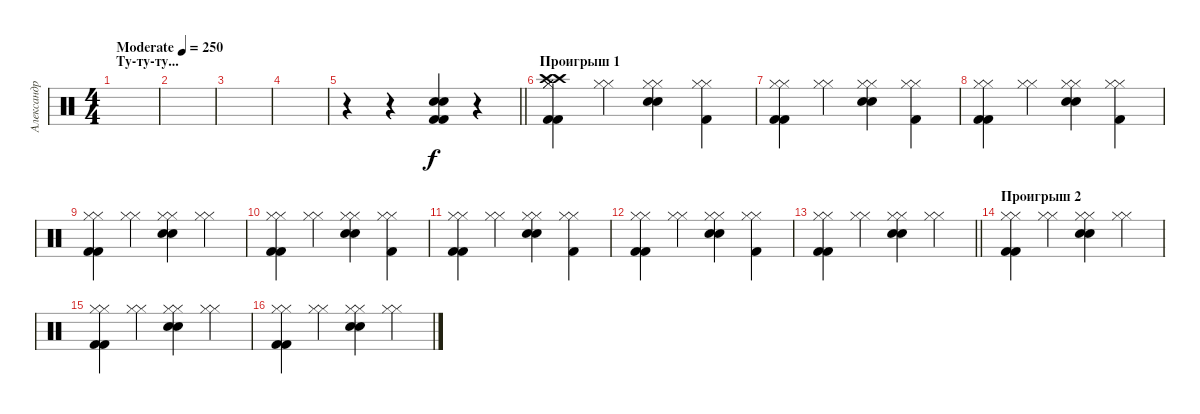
\track ("Александр Андрюшкин" "Александр ") {instrument percussion}
\staff {score}
\articulation defaults
\ts (4 4)
\section ("" "Ту-ту-ту...")
\tempo (250 "Moderate")
\clef neutral
\ks c
|
|
|
|
\barLineRight lightlight
r.4 r.4 ("Snare (hit) 2" "Snare (hit) 2" "Kick (hit) 2" "Kick (hit) 2").4 r.4 |
\section ("" "Проигрыш 1")
("Hi-Hat (closed)" "Hi-Hat (closed)" "Crash high (hit)" "Crash high (hit)" "Kick (hit) 2" "Kick (hit) 2").4 ("Hi-Hat (closed)" "Hi-Hat (closed)").4 ("Hi-Hat (closed)" "Hi-Hat (closed)" "Snare (hit) 2" "Snare (hit) 2").4 ("Hi-Hat (closed)" "Hi-Hat (closed)" "Kick (hit) 2").4 |
("Hi-Hat (closed)" "Hi-Hat (closed)" "Kick (hit) 2" "Kick (hit) 2").4 ("Hi-Hat (closed)" "Hi-Hat (closed)").4 ("Hi-Hat (closed)" "Hi-Hat (closed)" "Snare (hit) 2" "Snare (hit) 2").4 ("Hi-Hat (closed)" "Hi-Hat (closed)" "Kick (hit) 2").4 |
("Hi-Hat (closed)" "Hi-Hat (closed)" "Kick (hit) 2" "Kick (hit) 2").4 ("Hi-Hat (closed)" "Hi-Hat (closed)").4 ("Hi-Hat (closed)" "Hi-Hat (closed)" "Snare (hit) 2" "Snare (hit) 2").4 ("Hi-Hat (closed)" "Hi-Hat (closed)" "Kick (hit) 2").4 |
("Hi-Hat (closed)" "Hi-Hat (closed)" "Kick (hit) 2" "Kick (hit) 2").4 ("Hi-Hat (closed)" "Hi-Hat (closed)").4 ("Hi-Hat (closed)" "Hi-Hat (closed)" "Snare (hit) 2" "Snare (hit) 2").4 ("Hi-Hat (closed)" "Hi-Hat (closed)").4 |
("Hi-Hat (closed)" "Hi-Hat (closed)" "Kick (hit) 2" "Kick (hit) 2").4 ("Hi-Hat (closed)" "Hi-Hat (closed)").4 ("Hi-Hat (closed)" "Hi-Hat (closed)" "Snare (hit) 2" "Snare (hit) 2").4 ("Hi-Hat (closed)" "Hi-Hat (closed)" "Kick (hit) 2").4 |
("Hi-Hat (closed)" "Hi-Hat (closed)" "Kick (hit) 2" "Kick (hit) 2").4 ("Hi-Hat (closed)" "Hi-Hat (closed)").4 ("Hi-Hat (closed)" "Hi-Hat (closed)" "Snare (hit) 2" "Snare (hit) 2").4 ("Hi-Hat (closed)" "Hi-Hat (closed)" "Kick (hit) 2").4 |
("Hi-Hat (closed)" "Hi-Hat (closed)" "Kick (hit) 2" "Kick (hit) 2").4 ("Hi-Hat (closed)" "Hi-Hat (closed)").4 ("Hi-Hat (closed)" "Hi-Hat (closed)" "Snare (hit) 2" "Snare (hit) 2").4 ("Hi-Hat (closed)" "Hi-Hat (closed)" "Kick (hit) 2").4 |
\barLineRight lightlight
("Hi-Hat (closed)" "Hi-Hat (closed)" "Kick (hit) 2" "Kick (hit) 2").4 ("Hi-Hat (closed)" "Hi-Hat (closed)").4 ("Hi-Hat (closed)" "Hi-Hat (closed)" "Snare (hit) 2" "Snare (hit) 2").4 ("Hi-Hat (closed)" "Hi-Hat (closed)").4 |
\section ("" "Проигрыш 2")
("Hi-Hat (closed)" "Hi-Hat (closed)" "Kick (hit) 2" "Kick (hit) 2").4 ("Hi-Hat (closed)" "Hi-Hat (closed)").4 ("Hi-Hat (closed)" "Hi-Hat (closed)" "Snare (hit) 2" "Snare (hit) 2").4 ("Hi-Hat (closed)" "Hi-Hat (closed)").4 |
("Hi-Hat (closed)" "Hi-Hat (closed)" "Kick (hit) 2" "Kick (hit) 2").4 ("Hi-Hat (closed)" "Hi-Hat (closed)").4 ("Hi-Hat (closed)" "Hi-Hat (closed)" "Snare (hit) 2" "Snare (hit) 2").4 ("Hi-Hat (closed)" "Hi-Hat (closed)").4 |
("Hi-Hat (closed)" "Hi-Hat (closed)" "Kick (hit) 2" "Kick (hit) 2").4 ("Hi-Hat (closed)" "Hi-Hat (closed)").4 ("Hi-Hat (closed)" "Hi-Hat (closed)" "Snare (hit) 2" "Snare (hit) 2").4 ("Hi-Hat (closed)" "Hi-Hat (closed)").4
